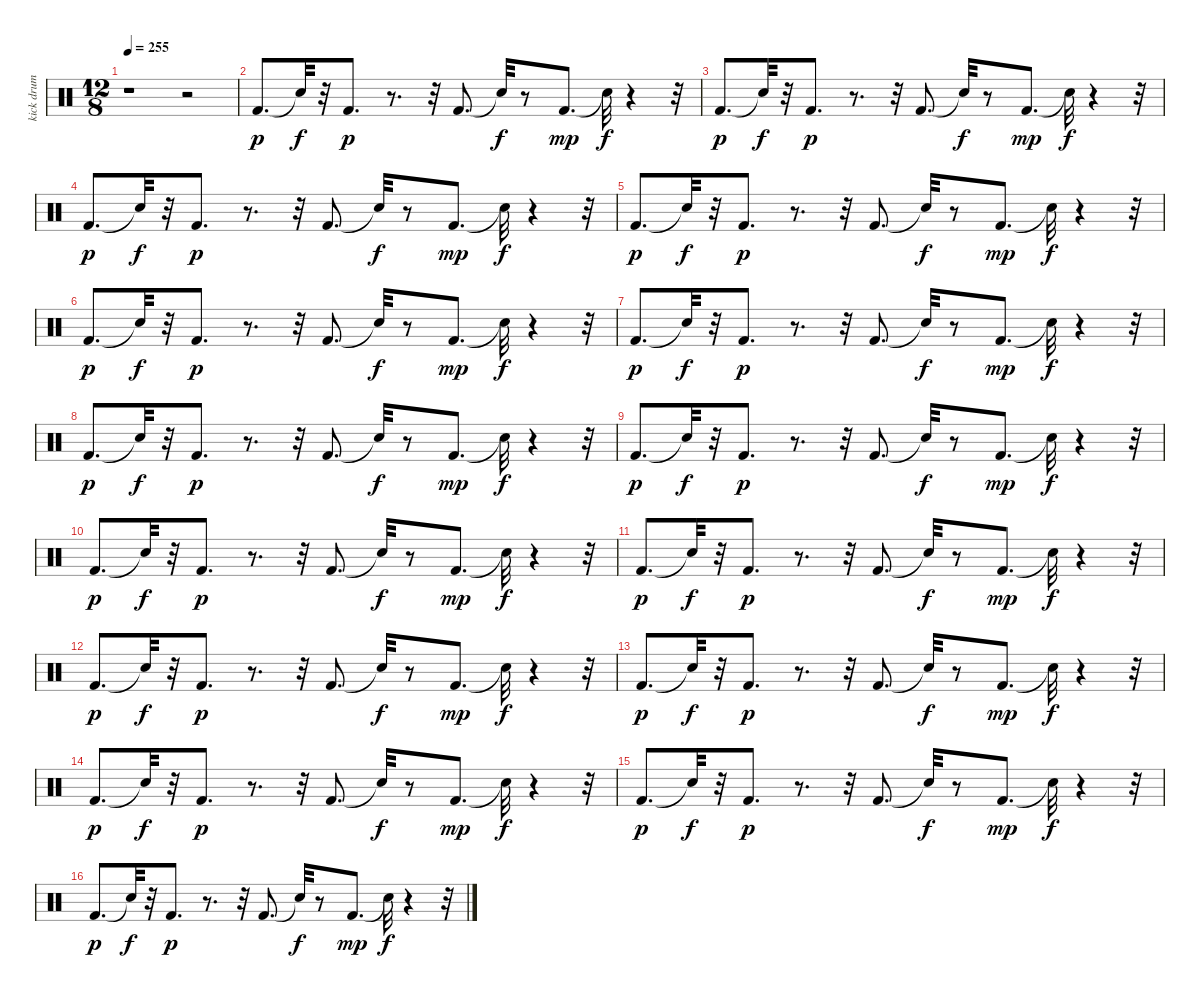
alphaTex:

\track ("kick drum           " "kick drum ") {instrument percussion}
\staff {score}
\articulation defaults
\ts (12 8)
\tempo 255
\clef neutral
\ks c
r.1{dy f} r.2 |
"Kick (hit) 2".8{d dy p} "Snare (hit)"{t}.32{dy f} r.32 "Kick (hit) 2".8{d dy p} r.8{d} r.32 "Kick (hit) 2".8{d} "Snare (hit)"{t}.32{dy f} r.8 "Kick (hit) 2".8{d dy mp} "Snare (hit)"{t}.32{dy f} r.4 r.32 |
"Kick (hit) 2".8{d dy p} "Snare (hit)"{t}.32{dy f} r.32 "Kick (hit) 2".8{d dy p} r.8{d} r.32 "Kick (hit) 2".8{d} "Snare (hit)"{t}.32{dy f} r.8 "Kick (hit) 2".8{d dy mp} "Snare (hit)"{t}.32{dy f} r.4 r.32 |
"Kick (hit) 2".8{d dy p} "Snare (hit)"{t}.32{dy f} r.32 "Kick (hit) 2".8{d dy p} r.8{d} r.32 "Kick (hit) 2".8{d} "Snare (hit)"{t}.32{dy f} r.8 "Kick (hit) 2".8{d dy mp} "Snare (hit)"{t}.32{dy f} r.4 r.32 |
"Kick (hit) 2".8{d dy p} "Snare (hit)"{t}.32{dy f} r.32 "Kick (hit) 2".8{d dy p} r.8{d} r.32 "Kick (hit) 2".8{d} "Snare (hit)"{t}.32{dy f} r.8 "Kick (hit) 2".8{d dy mp} "Snare (hit)"{t}.32{dy f} r.4 r.32 |
"Kick (hit) 2".8{d dy p} "Snare (hit)"{t}.32{dy f} r.32 "Kick (hit) 2".8{d dy p} r.8{d} r.32 "Kick (hit) 2".8{d} "Snare (hit)"{t}.32{dy f} r.8 "Kick (hit) 2".8{d dy mp} "Snare (hit)"{t}.32{dy f} r.4 r.32 |
"Kick (hit) 2".8{d dy p} "Snare (hit)"{t}.32{dy f} r.32 "Kick (hit) 2".8{d dy p} r.8{d} r.32 "Kick (hit) 2".8{d} "Snare (hit)"{t}.32{dy f} r.8 "Kick (hit) 2".8{d dy mp} "Snare (hit)"{t}.32{dy f} r.4 r.32 |
"Kick (hit) 2".8{d dy p} "Snare (hit)"{t}.32{dy f} r.32 "Kick (hit) 2".8{d dy p} r.8{d} r.32 "Kick (hit) 2".8{d} "Snare (hit)"{t}.32{dy f} r.8 "Kick (hit) 2".8{d dy mp} "Snare (hit)"{t}.32{dy f} r.4 r.32 |
"Kick (hit) 2".8{d dy p} "Snare (hit)"{t}.32{dy f} r.32 "Kick (hit) 2".8{d dy p} r.8{d} r.32 "Kick (hit) 2".8{d} "Snare (hit)"{t}.32{dy f} r.8 "Kick (hit) 2".8{d dy mp} "Snare (hit)"{t}.32{dy f} r.4 r.32 |
"Kick (hit) 2".8{d dy p} "Snare (hit)"{t}.32{dy f} r.32 "Kick (hit) 2".8{d dy p} r.8{d} r.32 "Kick (hit) 2".8{d} "Snare (hit)"{t}.32{dy f} r.8 "Kick (hit) 2".8{d dy mp} "Snare (hit)"{t}.32{dy f} r.4 r.32 |
"Kick (hit) 2".8{d dy p} "Snare (hit)"{t}.32{dy f} r.32 "Kick (hit) 2".8{d dy p} r.8{d} r.32 "Kick (hit) 2".8{d} "Snare (hit)"{t}.32{dy f} r.8 "Kick (hit) 2".8{d dy mp} "Snare (hit)"{t}.32{dy f} r.4 r.32 |
"Kick (hit) 2".8{d dy p} "Snare (hit)"{t}.32{dy f} r.32 "Kick (hit) 2".8{d dy p} r.8{d} r.32 "Kick (hit) 2".8{d} "Snare (hit)"{t}.32{dy f} r.8 "Kick (hit) 2".8{d dy mp} "Snare (hit)"{t}.32{dy f} r.4 r.32 |
"Kick (hit) 2".8{d dy p} "Snare (hit)"{t}.32{dy f} r.32 "Kick (hit) 2".8{d dy p} r.8{d} r.32 "Kick (hit) 2".8{d} "Snare (hit)"{t}.32{dy f} r.8 "Kick (hit) 2".8{d dy mp} "Snare (hit)"{t}.32{dy f} r.4 r.32 |
"Kick (hit) 2".8{d dy p} "Snare (hit)"{t}.32{dy f} r.32 "Kick (hit) 2".8{d dy p} r.8{d} r.32 "Kick (hit) 2".8{d} "Snare (hit)"{t}.32{dy f} r.8 "Kick (hit) 2".8{d dy mp} "Snare (hit)"{t}.32{dy f} r.4 r.32 |
"Kick (hit) 2".8{d dy p} "Snare (hit)"{t}.32{dy f} r.32 "Kick (hit) 2".8{d dy p} r.8{d} r.32 "Kick (hit) 2".8{d} "Snare (hit)"{t}.32{dy f} r.8 "Kick (hit) 2".8{d dy mp} "Snare (hit)"{t}.32{dy f} r.4 r.32 |
"Kick (hit) 2".8{d dy p} "Snare (hit)"{t}.32{dy f} r.32 "Kick (hit) 2".8{d dy p} r.8{d} r.32 "Kick (hit) 2".8{d} "Snare (hit)"{t}.32{dy f} r.8 "Kick (hit) 2".8{d dy mp} "Snare (hit)"{t}.32{dy f} r.4 r.32
